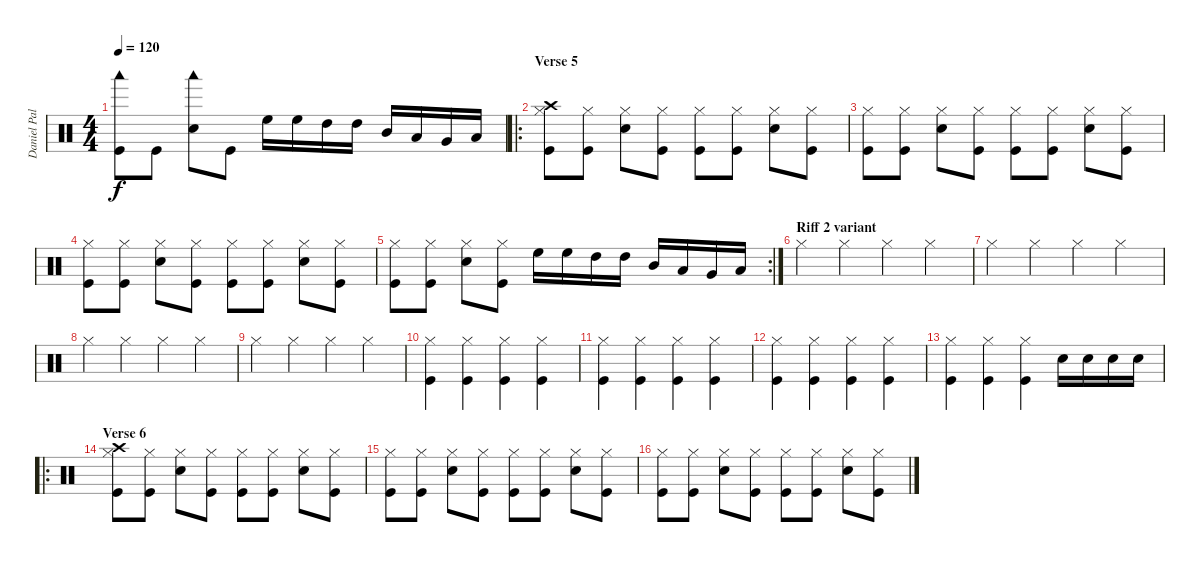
\track ("Daniel Pal" "Daniel Pal") {instrument percussion}
\staff {score}
\articulation defaults
\ts (4 4)
\tempo 120
\clef neutral
\ks c
("Woodblock low (hit)" "Kick (hit)").8{dy f} "Kick (hit)".8 ("Woodblock low (hit)" "Electric Snare (hit)").8 "Kick (hit)".8 "High Floor Tom (hit)".16 "High Floor Tom (hit)".16 "High Tom (hit)".16 "High Tom (hit)".16 "Mid Tom (hit)".16 "Low Tom (hit)".16 "Very Low Tom (hit)".16 "Low Floor Tom (hit)".16 |
\ro
\section ("" "Verse 5")
("Crash high (hit)" "Hi-Hat (closed)" "Kick (hit)").8 ("Hi-Hat (closed)" "Kick (hit)").8 ("Hi-Hat (closed)" "Electric Snare (hit)").8 ("Hi-Hat (closed)" "Kick (hit)").8 ("Hi-Hat (closed)" "Kick (hit)").8 ("Hi-Hat (closed)" "Kick (hit)").8 ("Hi-Hat (closed)" "Electric Snare (hit)").8 ("Hi-Hat (closed)" "Kick (hit)").8 |
("Hi-Hat (closed)" "Kick (hit)").8 ("Hi-Hat (closed)" "Kick (hit)").8 ("Hi-Hat (closed)" "Electric Snare (hit)").8 ("Hi-Hat (closed)" "Kick (hit)").8 ("Hi-Hat (closed)" "Kick (hit)").8 ("Hi-Hat (closed)" "Kick (hit)").8 ("Hi-Hat (closed)" "Electric Snare (hit)").8 ("Hi-Hat (closed)" "Kick (hit)").8 |
("Hi-Hat (closed)" "Kick (hit)").8 ("Hi-Hat (closed)" "Kick (hit)").8 ("Hi-Hat (closed)" "Electric Snare (hit)").8 ("Hi-Hat (closed)" "Kick (hit)").8 ("Hi-Hat (closed)" "Kick (hit)").8 ("Hi-Hat (closed)" "Kick (hit)").8 ("Hi-Hat (closed)" "Electric Snare (hit)").8 ("Hi-Hat (closed)" "Kick (hit)").8 |
\rc 2
("Hi-Hat (closed)" "Kick (hit)").8 ("Hi-Hat (closed)" "Kick (hit)").8 ("Hi-Hat (closed)" "Electric Snare (hit)").8 ("Hi-Hat (closed)" "Kick (hit)").8 "High Floor Tom (hit)".16 "High Floor Tom (hit)".16 "High Tom (hit)".16 "High Tom (hit)".16 "Mid Tom (hit)".16 "Low Tom (hit)".16 "Very Low Tom (hit)".16 "Low Floor Tom (hit)".16 |
\section ("" "Riff 2 variant")
"Hi-Hat (closed)".4 "Hi-Hat (closed)".4 "Hi-Hat (closed)".4 "Hi-Hat (closed)".4 |
"Hi-Hat (closed)".4 "Hi-Hat (closed)".4 "Hi-Hat (closed)".4 "Hi-Hat (closed)".4 |
"Hi-Hat (closed)".4 "Hi-Hat (closed)".4 "Hi-Hat (closed)".4 "Hi-Hat (closed)".4 |
"Hi-Hat (closed)".4 "Hi-Hat (closed)".4 "Hi-Hat (closed)".4 "Hi-Hat (closed)".4 |
("Hi-Hat (closed)" "Kick (hit)").4 ("Hi-Hat (closed)" "Kick (hit)").4 ("Hi-Hat (closed)" "Kick (hit)").4 ("Hi-Hat (closed)" "Kick (hit)").4 |
("Hi-Hat (closed)" "Kick (hit)").4 ("Hi-Hat (closed)" "Kick (hit)").4 ("Hi-Hat (closed)" "Kick (hit)").4 ("Hi-Hat (closed)" "Kick (hit)").4 |
("Hi-Hat (closed)" "Kick (hit)").4 ("Hi-Hat (closed)" "Kick (hit)").4 ("Hi-Hat (closed)" "Kick (hit)").4 ("Hi-Hat (closed)" "Kick (hit)").4 |
("Hi-Hat (closed)" "Kick (hit)").4 ("Hi-Hat (closed)" "Kick (hit)").4 ("Hi-Hat (closed)" "Kick (hit)").4 "Electric Snare (hit)".16 "Electric Snare (hit)".16 "Electric Snare (hit)".16 "Electric Snare (hit)".16 |
\ro
\section ("" "Verse 6")
("Crash high (hit)" "Hi-Hat (closed)" "Kick (hit)").8 ("Hi-Hat (closed)" "Kick (hit)").8 ("Hi-Hat (closed)" "Electric Snare (hit)").8 ("Hi-Hat (closed)" "Kick (hit)").8 ("Hi-Hat (closed)" "Kick (hit)").8 ("Hi-Hat (closed)" "Kick (hit)").8 ("Hi-Hat (closed)" "Electric Snare (hit)").8 ("Hi-Hat (closed)" "Kick (hit)").8 |
("Hi-Hat (closed)" "Kick (hit)").8 ("Hi-Hat (closed)" "Kick (hit)").8 ("Hi-Hat (closed)" "Electric Snare (hit)").8 ("Hi-Hat (closed)" "Kick (hit)").8 ("Hi-Hat (closed)" "Kick (hit)").8 ("Hi-Hat (closed)" "Kick (hit)").8 ("Hi-Hat (closed)" "Electric Snare (hit)").8 ("Hi-Hat (closed)" "Kick (hit)").8 |
("Hi-Hat (closed)" "Kick (hit)").8 ("Hi-Hat (closed)" "Kick (hit)").8 ("Hi-Hat (closed)" "Electric Snare (hit)").8 ("Hi-Hat (closed)" "Kick (hit)").8 ("Hi-Hat (closed)" "Kick (hit)").8 ("Hi-Hat (closed)" "Kick (hit)").8 ("Hi-Hat (closed)" "Electric Snare (hit)").8 ("Hi-Hat (closed)" "Kick (hit)").8
